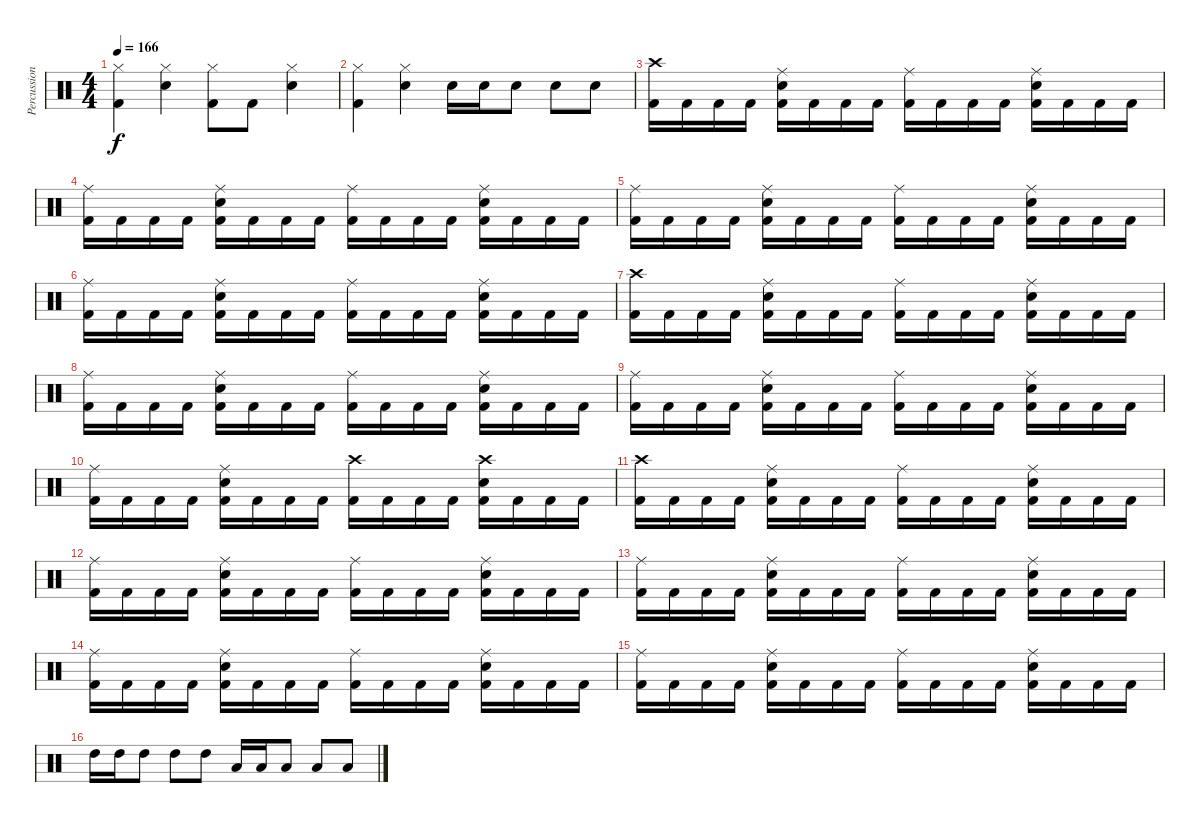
\track ("Percussion" "Percussion") {solo instrument percussion}
\staff {score}
\articulation defaults
\ts (4 4)
\tempo 166
\clef neutral
\ks aminor
("Hi-Hat (closed)" "Kick (hit) 2").4{dy f} ("Hi-Hat (closed)" "Snare (hit) 2").4 ("Hi-Hat (closed)" "Kick (hit) 2").8 "Kick (hit) 2".8 ("Hi-Hat (closed)" "Snare (hit) 2").4 |
("Hi-Hat (closed)" "Kick (hit) 2").4 ("Hi-Hat (closed)" "Snare (hit) 2").4 "Snare (hit) 2".16 "Snare (hit) 2".16 "Snare (hit) 2".8 "Snare (hit) 2".8 "Snare (hit) 2".8 |
\ks c
("Crash high (hit)" "Kick (hit) 2").16 "Kick (hit) 2".16 "Kick (hit) 2".16 "Kick (hit) 2".16 ("Ride (middle)" "Snare (hit) 2" "Kick (hit) 2").16 "Kick (hit) 2".16 "Kick (hit) 2".16 "Kick (hit) 2".16 ("Ride (middle)" "Kick (hit) 2").16 "Kick (hit) 2".16 "Kick (hit) 2".16 "Kick (hit) 2".16 ("Snare (hit) 2" "Ride (middle)" "Kick (hit) 2").16 "Kick (hit) 2".16 "Kick (hit) 2".16 "Kick (hit) 2".16 |
("Ride (middle)" "Kick (hit) 2").16 "Kick (hit) 2".16 "Kick (hit) 2".16 "Kick (hit) 2".16 ("Snare (hit) 2" "Ride (middle)" "Kick (hit) 2").16 "Kick (hit) 2".16 "Kick (hit) 2".16 "Kick (hit) 2".16 ("Ride (middle)" "Kick (hit) 2").16 "Kick (hit) 2".16 "Kick (hit) 2".16 "Kick (hit) 2".16 ("Snare (hit) 2" "Ride (middle)" "Kick (hit) 2").16 "Kick (hit) 2".16 "Kick (hit) 2".16 "Kick (hit) 2".16 |
("Ride (middle)" "Kick (hit) 2").16 "Kick (hit) 2".16 "Kick (hit) 2".16 "Kick (hit) 2".16 ("Snare (hit) 2" "Ride (middle)" "Kick (hit) 2").16 "Kick (hit) 2".16 "Kick (hit) 2".16 "Kick (hit) 2".16 ("Ride (middle)" "Kick (hit) 2").16 "Kick (hit) 2".16 "Kick (hit) 2".16 "Kick (hit) 2".16 ("Snare (hit) 2" "Ride (middle)" "Kick (hit) 2").16 "Kick (hit) 2".16 "Kick (hit) 2".16 "Kick (hit) 2".16 |
("Ride (middle)" "Kick (hit) 2").16 "Kick (hit) 2".16 "Kick (hit) 2".16 "Kick (hit) 2".16 ("Snare (hit) 2" "Ride (middle)" "Kick (hit) 2").16 "Kick (hit) 2".16 "Kick (hit) 2".16 "Kick (hit) 2".16 ("Ride (middle)" "Kick (hit) 2").16 "Kick (hit) 2".16 "Kick (hit) 2".16 "Kick (hit) 2".16 ("Snare (hit) 2" "Ride (middle)" "Kick (hit) 2").16 "Kick (hit) 2".16 "Kick (hit) 2".16 "Kick (hit) 2".16 |
("Crash high (hit)" "Kick (hit) 2").16 "Kick (hit) 2".16 "Kick (hit) 2".16 "Kick (hit) 2".16 ("Snare (hit) 2" "Ride (middle)" "Kick (hit) 2").16 "Kick (hit) 2".16 "Kick (hit) 2".16 "Kick (hit) 2".16 ("Ride (middle)" "Kick (hit) 2").16 "Kick (hit) 2".16 "Kick (hit) 2".16 "Kick (hit) 2".16 ("Snare (hit) 2" "Ride (middle)" "Kick (hit) 2").16 "Kick (hit) 2".16 "Kick (hit) 2".16 "Kick (hit) 2".16 |
("Ride (middle)" "Kick (hit) 2").16 "Kick (hit) 2".16 "Kick (hit) 2".16 "Kick (hit) 2".16 ("Snare (hit) 2" "Ride (middle)" "Kick (hit) 2").16 "Kick (hit) 2".16 "Kick (hit) 2".16 "Kick (hit) 2".16 ("Ride (middle)" "Kick (hit) 2").16 "Kick (hit) 2".16 "Kick (hit) 2".16 "Kick (hit) 2".16 ("Snare (hit) 2" "Ride (middle)" "Kick (hit) 2").16 "Kick (hit) 2".16 "Kick (hit) 2".16 "Kick (hit) 2".16 |
("Ride (middle)" "Kick (hit) 2").16 "Kick (hit) 2".16 "Kick (hit) 2".16 "Kick (hit) 2".16 ("Snare (hit) 2" "Ride (middle)" "Kick (hit) 2").16 "Kick (hit) 2".16 "Kick (hit) 2".16 "Kick (hit) 2".16 ("Ride (middle)" "Kick (hit) 2").16 "Kick (hit) 2".16 "Kick (hit) 2".16 "Kick (hit) 2".16 ("Snare (hit) 2" "Ride (middle)" "Kick (hit) 2").16 "Kick (hit) 2".16 "Kick (hit) 2".16 "Kick (hit) 2".16 |
("Ride (middle)" "Kick (hit) 2").16 "Kick (hit) 2".16 "Kick (hit) 2".16 "Kick (hit) 2".16 ("Ride (middle)" "Snare (hit) 2" "Kick (hit) 2").16 "Kick (hit) 2".16 "Kick (hit) 2".16 "Kick (hit) 2".16 ("Crash high (hit)" "Kick (hit) 2").16 "Kick (hit) 2".16 "Kick (hit) 2".16 "Kick (hit) 2".16 ("Snare (hit) 2" "Crash high (hit)" "Kick (hit) 2").16 "Kick (hit) 2".16 "Kick (hit) 2".16 "Kick (hit) 2".16 |
("Crash high (hit)" "Kick (hit) 2").16 "Kick (hit) 2".16 "Kick (hit) 2".16 "Kick (hit) 2".16 ("Snare (hit) 2" "Ride (middle)" "Kick (hit) 2").16 "Kick (hit) 2".16 "Kick (hit) 2".16 "Kick (hit) 2".16 ("Ride (middle)" "Kick (hit) 2").16 "Kick (hit) 2".16 "Kick (hit) 2".16 "Kick (hit) 2".16 ("Snare (hit) 2" "Ride (middle)" "Kick (hit) 2").16 "Kick (hit) 2".16 "Kick (hit) 2".16 "Kick (hit) 2".16 |
("Ride (middle)" "Kick (hit) 2").16 "Kick (hit) 2".16 "Kick (hit) 2".16 "Kick (hit) 2".16 ("Snare (hit) 2" "Ride (middle)" "Kick (hit) 2").16 "Kick (hit) 2".16 "Kick (hit) 2".16 "Kick (hit) 2".16 ("Ride (middle)" "Kick (hit) 2").16 "Kick (hit) 2".16 "Kick (hit) 2".16 "Kick (hit) 2".16 ("Snare (hit) 2" "Ride (middle)" "Kick (hit) 2").16 "Kick (hit) 2".16 "Kick (hit) 2".16 "Kick (hit) 2".16 |
("Ride (middle)" "Kick (hit) 2").16 "Kick (hit) 2".16 "Kick (hit) 2".16 "Kick (hit) 2".16 ("Snare (hit) 2" "Ride (middle)" "Kick (hit) 2").16 "Kick (hit) 2".16 "Kick (hit) 2".16 "Kick (hit) 2".16 ("Ride (middle)" "Kick (hit) 2").16 "Kick (hit) 2".16 "Kick (hit) 2".16 "Kick (hit) 2".16 ("Snare (hit) 2" "Ride (middle)" "Kick (hit) 2").16 "Kick (hit) 2".16 "Kick (hit) 2".16 "Kick (hit) 2".16 |
("Ride (middle)" "Kick (hit) 2").16 "Kick (hit) 2".16 "Kick (hit) 2".16 "Kick (hit) 2".16 ("Snare (hit) 2" "Ride (middle)" "Kick (hit) 2").16 "Kick (hit) 2".16 "Kick (hit) 2".16 "Kick (hit) 2".16 ("Ride (middle)" "Kick (hit) 2").16 "Kick (hit) 2".16 "Kick (hit) 2".16 "Kick (hit) 2".16 ("Snare (hit) 2" "Ride (middle)" "Kick (hit) 2").16 "Kick (hit) 2".16 "Kick (hit) 2".16 "Kick (hit) 2".16 |
("Ride (middle)" "Kick (hit) 2").16 "Kick (hit) 2".16 "Kick (hit) 2".16 "Kick (hit) 2".16 ("Snare (hit) 2" "Ride (middle)" "Kick (hit) 2").16 "Kick (hit) 2".16 "Kick (hit) 2".16 "Kick (hit) 2".16 ("Ride (middle)" "Kick (hit) 2").16 "Kick (hit) 2".16 "Kick (hit) 2".16 "Kick (hit) 2".16 ("Snare (hit) 2" "Ride (middle)" "Kick (hit) 2").16 "Kick (hit) 2".16 "Kick (hit) 2".16 "Kick (hit) 2".16 |
\ks aminor "High Tom (hit)".16 "High Tom (hit)".16 "High Tom (hit)".8 "High Tom (hit)".8 "High Tom (hit)".8 "Low Tom (hit)".16 "Low Tom (hit)".16 "Low Tom (hit)".8 "Low Tom (hit)".8 "Low Tom (hit)".8
